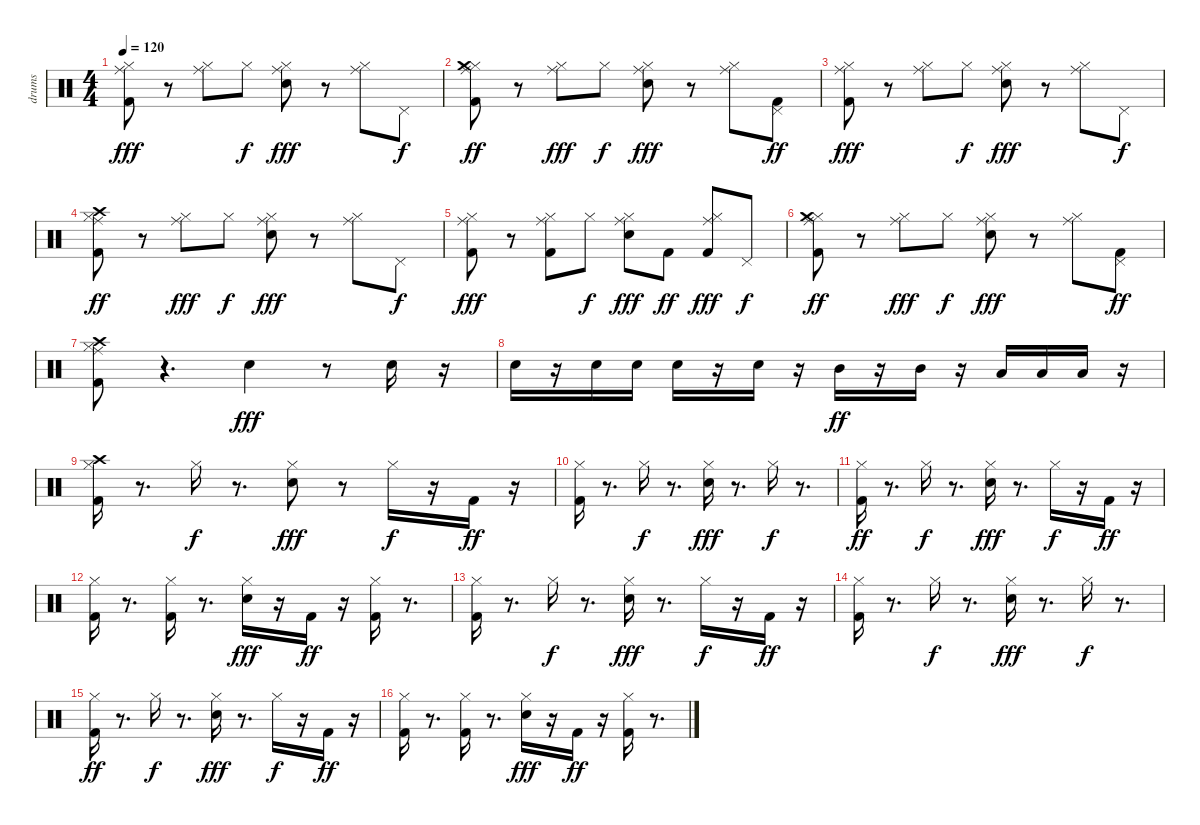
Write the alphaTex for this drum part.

\track ("drums" "drums") {instrument percussion}
\staff {score}
\articulation defaults
\ts (4 4)
\tempo 120
\clef neutral
\ks c
("Kick (hit) 2" "Hi-Hat (closed)" "Ride (middle)").8{dy fff} r.8 ("Hi-Hat (closed)" "Ride (middle)").8 "Hi-Hat (closed)".8{dy f} ("Snare (hit) 2" "Hi-Hat (closed)" "Ride (middle)").8{dy fff} r.8 ("Hi-Hat (closed)" "Ride (middle)").8 "Pedal Hi-Hat (hit)".8{dy f} |
("Kick (hit) 2" "Hi-Hat (closed)" "Ride (middle)" "Crash medium (hit)").8{dy ff} r.8 ("Hi-Hat (closed)" "Ride (middle)").8{dy fff} "Hi-Hat (closed)".8{dy f} ("Snare (hit) 2" "Hi-Hat (closed)" "Ride (middle)").8{dy fff} r.8 ("Hi-Hat (closed)" "Ride (middle)").8 ("Kick (hit) 2" "Pedal Hi-Hat (hit)").8{dy ff} |
("Kick (hit) 2" "Hi-Hat (closed)" "Ride (middle)").8{dy fff} r.8 ("Hi-Hat (closed)" "Ride (middle)").8 "Hi-Hat (closed)".8{dy f} ("Snare (hit) 2" "Hi-Hat (closed)" "Ride (middle)").8{dy fff} r.8 ("Hi-Hat (closed)" "Ride (middle)").8 "Pedal Hi-Hat (hit)".8{dy f} |
("Kick (hit) 2" "Hi-Hat (closed)" "Ride (middle)" "Crash high (hit)").8{dy ff} r.8 ("Hi-Hat (closed)" "Ride (middle)").8{dy fff} "Hi-Hat (closed)".8{dy f} ("Snare (hit) 2" "Hi-Hat (closed)" "Ride (middle)").8{dy fff} r.8 ("Hi-Hat (closed)" "Ride (middle)").8 "Pedal Hi-Hat (hit)".8{dy f} |
("Kick (hit) 2" "Hi-Hat (closed)" "Ride (middle)").8{dy fff} r.8 ("Kick (hit) 2" "Hi-Hat (closed)" "Ride (middle)").8 "Hi-Hat (closed)".8{dy f} ("Snare (hit) 2" "Hi-Hat (closed)" "Ride (middle)").8{dy fff} "Kick (hit) 2".8{dy ff} ("Kick (hit) 2" "Hi-Hat (closed)" "Ride (middle)").8{dy fff} "Pedal Hi-Hat (hit)".8{dy f} |
("Kick (hit) 2" "Hi-Hat (closed)" "Ride (middle)" "Crash medium (hit)").8{dy ff} r.8 ("Hi-Hat (closed)" "Ride (middle)").8{dy fff} "Hi-Hat (closed)".8{dy f} ("Snare (hit) 2" "Hi-Hat (closed)" "Ride (middle)").8{dy fff} r.8 ("Hi-Hat (closed)" "Ride (middle)").8 ("Kick (hit) 2" "Pedal Hi-Hat (hit)").8{dy ff} |
("Kick (hit) 2" "Hi-Hat (closed)" "Ride (middle)" "Crash high (hit)").8 r.4{d} "Snare (hit) 2".4{dy fff} r.8 "Snare (hit) 2".16 r.16 |
"Snare (hit) 2".16 r.16 "Snare (hit) 2".16 "Snare (hit) 2".16 "Snare (hit) 2".16 r.16 "Snare (hit) 2".16 r.16 "Mid Tom (hit)".16{dy ff} r.16 "Mid Tom (hit)".16 r.16 "Low Floor Tom (hit)".16 "Low Floor Tom (hit)".16 "Low Floor Tom (hit)".16 r.16 |
("Kick (hit) 2" "Hi-Hat (closed)" "Crash high (hit)").16 r.8{d} "Hi-Hat (closed)".16{dy f} r.8{d} ("Snare (hit) 2" "Hi-Hat (closed)").8{dy fff} r.8 "Hi-Hat (closed)".16{dy f} r.16 "Kick (hit) 2".16{dy ff} r.16 |
("Kick (hit) 2" "Hi-Hat (closed)").16 r.8{d} "Hi-Hat (closed)".16{dy f} r.8{d} ("Snare (hit) 2" "Hi-Hat (closed)").16{dy fff} r.8{d} "Hi-Hat (closed)".16{dy f} r.8{d} |
("Kick (hit) 2" "Hi-Hat (closed)").16{dy ff} r.8{d} "Hi-Hat (closed)".16{dy f} r.8{d} ("Snare (hit) 2" "Hi-Hat (closed)").16{dy fff} r.8{d} "Hi-Hat (closed)".16{dy f} r.16 "Kick (hit) 2".16{dy ff} r.16 |
("Kick (hit) 2" "Hi-Hat (closed)").16 r.8{d} ("Kick (hit) 2" "Hi-Hat (closed)").16 r.8{d} ("Snare (hit) 2" "Hi-Hat (closed)").16{dy fff} r.16 "Kick (hit) 2".16{dy ff} r.16 ("Kick (hit) 2" "Hi-Hat (closed)").16 r.8{d} |
("Kick (hit) 2" "Hi-Hat (closed)").16 r.8{d} "Hi-Hat (closed)".16{dy f} r.8{d} ("Snare (hit) 2" "Hi-Hat (closed)").16{dy fff} r.8{d} "Hi-Hat (closed)".16{dy f} r.16 "Kick (hit) 2".16{dy ff} r.16 |
("Kick (hit) 2" "Hi-Hat (closed)").16 r.8{d} "Hi-Hat (closed)".16{dy f} r.8{d} ("Snare (hit) 2" "Hi-Hat (closed)").16{dy fff} r.8{d} "Hi-Hat (closed)".16{dy f} r.8{d} |
("Kick (hit) 2" "Hi-Hat (closed)").16{dy ff} r.8{d} "Hi-Hat (closed)".16{dy f} r.8{d} ("Snare (hit) 2" "Hi-Hat (closed)").16{dy fff} r.8{d} "Hi-Hat (closed)".16{dy f} r.16 "Kick (hit) 2".16{dy ff} r.16 |
("Kick (hit) 2" "Hi-Hat (closed)").16 r.8{d} ("Kick (hit) 2" "Hi-Hat (closed)").16 r.8{d} ("Snare (hit) 2" "Hi-Hat (closed)").16{dy fff} r.16 "Kick (hit) 2".16{dy ff} r.16 ("Kick (hit) 2" "Hi-Hat (closed)").16 r.8{d}
